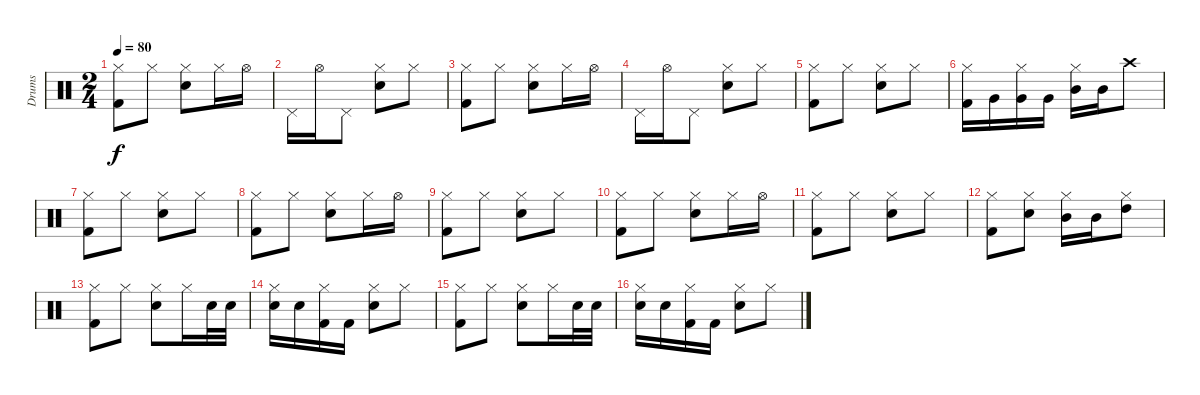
\track ("Drums" "Drums") {instrument percussion}
\staff {score}
\articulation defaults
\ts (2 4)
\tempo 80
\clef neutral
\ks aminor
("Kick (hit) 2" "Hi-Hat (closed)").8{dy f} "Hi-Hat (closed)".8 ("Electric Snare (hit)" "Hi-Hat (closed)").8 "Hi-Hat (closed)".16 "Hi-Hat (open)".16 |
"Pedal Hi-Hat (hit)".16 "Hi-Hat (open)".16 "Pedal Hi-Hat (hit)".8 ("Electric Snare (hit)" "Hi-Hat (closed)").8 "Hi-Hat (closed)".8 |
("Kick (hit) 2" "Hi-Hat (closed)").8 "Hi-Hat (closed)".8 ("Electric Snare (hit)" "Hi-Hat (closed)").8 "Hi-Hat (closed)".16 "Hi-Hat (open)".16 |
"Pedal Hi-Hat (hit)".16 "Hi-Hat (open)".16 "Pedal Hi-Hat (hit)".8 ("Electric Snare (hit)" "Hi-Hat (closed)").8 "Hi-Hat (closed)".8 |
("Kick (hit) 2" "Hi-Hat (closed)").8 "Hi-Hat (closed)".8 ("Electric Snare (hit)" "Hi-Hat (closed)").8 "Hi-Hat (closed)".8 |
("Kick (hit) 2" "Hi-Hat (closed)").16 "Very Low Tom (hit)".16 ("Very Low Tom (hit)" "Hi-Hat (closed)").16 "Very Low Tom (hit)".16 ("Mid Tom (hit)" "Hi-Hat (closed)").16 "Mid Tom (hit)".16 "Crash high (hit)".8 |
("Hi-Hat (closed)" "Kick (hit) 2").8 "Hi-Hat (closed)".8 ("Hi-Hat (closed)" "Electric Snare (hit)").8 "Hi-Hat (closed)".8 |
("Kick (hit) 2" "Hi-Hat (closed)").8 "Hi-Hat (closed)".8 ("Electric Snare (hit)" "Hi-Hat (closed)").8 "Hi-Hat (closed)".16 "Hi-Hat (open)".16 |
("Hi-Hat (closed)" "Kick (hit) 2").8 "Hi-Hat (closed)".8 ("Hi-Hat (closed)" "Electric Snare (hit)").8 "Hi-Hat (closed)".8 |
("Kick (hit) 2" "Hi-Hat (closed)").8 "Hi-Hat (closed)".8 ("Electric Snare (hit)" "Hi-Hat (closed)").8 "Hi-Hat (closed)".16 "Hi-Hat (open)".16 |
("Kick (hit) 2" "Hi-Hat (closed)").8 "Hi-Hat (closed)".8 ("Electric Snare (hit)" "Hi-Hat (closed)").8 "Hi-Hat (closed)".8 |
("Kick (hit) 2" "Hi-Hat (closed)").8 ("Electric Snare (hit)" "Hi-Hat (closed)").8 ("Mid Tom (hit)" "Hi-Hat (closed)").16 "Mid Tom (hit)".16 ("High Tom (hit)" "Hi-Hat (closed)").8 |
("Hi-Hat (closed)" "Kick (hit) 2").8 "Hi-Hat (closed)".8 ("Electric Snare (hit)" "Hi-Hat (closed)").8 "Hi-Hat (closed)".16 "Electric Snare (hit)".32 "Electric Snare (hit)".32 |
("Electric Snare (hit)" "Hi-Hat (closed)").16 "Electric Snare (hit)".16 ("Kick (hit) 2" "Hi-Hat (closed)").16 "Kick (hit) 2".16 ("Electric Snare (hit)" "Hi-Hat (closed)").8 "Hi-Hat (closed)".8 |
("Hi-Hat (closed)" "Kick (hit) 2").8 "Hi-Hat (closed)".8 ("Electric Snare (hit)" "Hi-Hat (closed)").8 "Hi-Hat (closed)".16 "Electric Snare (hit)".32 "Electric Snare (hit)".32 |
("Electric Snare (hit)" "Hi-Hat (closed)").16 "Electric Snare (hit)".16 ("Kick (hit) 2" "Hi-Hat (closed)").16 "Kick (hit) 2".16 ("Electric Snare (hit)" "Hi-Hat (closed)").8 "Hi-Hat (closed)".8
